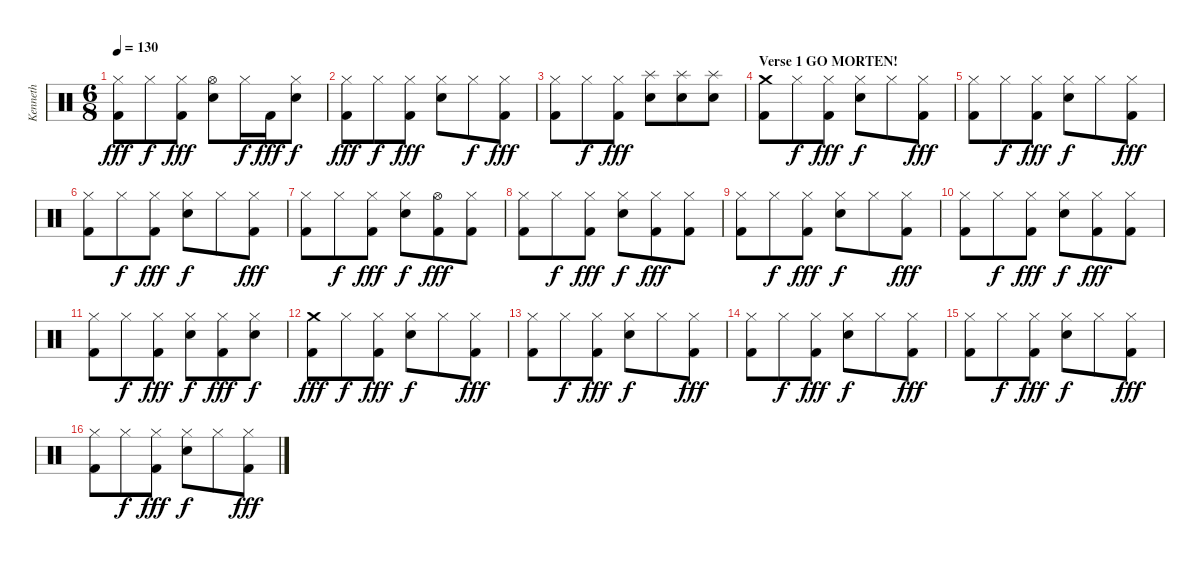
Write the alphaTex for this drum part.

\track ("Kenneth" "Kenneth") {instrument percussion}
\staff {score}
\articulation defaults
\ts (6 8)
\tempo 130
\clef neutral
\ks c
("Hi-Hat (closed)" "Kick (hit) 2").8{dy fff} "Hi-Hat (closed)".8{dy f} ("Hi-Hat (closed)" "Kick (hit) 2").8{dy fff} ("Hi-Hat (open)" "Electric Snare (hit)").8 "Hi-Hat (closed)".16{dy f} "Kick (hit) 2".16{dy fff} ("Hi-Hat (closed)" "Electric Snare (hit)").8{dy f} |
("Hi-Hat (closed)" "Kick (hit) 2").8{dy fff} "Hi-Hat (closed)".8{dy f} ("Hi-Hat (closed)" "Kick (hit) 2").8{dy fff} ("Hi-Hat (closed)" "Electric Snare (hit)").8 "Hi-Hat (closed)".8{dy f} ("Hi-Hat (closed)" "Kick (hit) 2").8{dy fff} |
("Hi-Hat (closed)" "Kick (hit) 2").8 "Hi-Hat (closed)".8{dy f} ("Hi-Hat (closed)" "Kick (hit) 2").8{dy fff} ("Splash (hit)" "Electric Snare (hit)").8 ("Splash (hit)" "Electric Snare (hit)").8 ("Splash (hit)" "Electric Snare (hit)").8 |
\section ("" "Verse 1 GO MORTEN!")
("Crash medium (hit)" "Kick (hit) 2").8 "Hi-Hat (closed)".8{dy f} ("Hi-Hat (closed)" "Kick (hit) 2").8{dy fff} ("Hi-Hat (closed)" "Electric Snare (hit)").8{dy f} "Hi-Hat (closed)".8 ("Hi-Hat (closed)" "Kick (hit) 2").8{dy fff} |
("Hi-Hat (closed)" "Kick (hit) 2").8 "Hi-Hat (closed)".8{dy f} ("Hi-Hat (closed)" "Kick (hit) 2").8{dy fff} ("Hi-Hat (closed)" "Electric Snare (hit)").8{dy f} "Hi-Hat (closed)".8 ("Hi-Hat (closed)" "Kick (hit) 2").8{dy fff} |
("Hi-Hat (closed)" "Kick (hit) 2").8 "Hi-Hat (closed)".8{dy f} ("Hi-Hat (closed)" "Kick (hit) 2").8{dy fff} ("Hi-Hat (closed)" "Electric Snare (hit)").8{dy f} "Hi-Hat (closed)".8 ("Hi-Hat (closed)" "Kick (hit) 2").8{dy fff} |
("Hi-Hat (closed)" "Kick (hit) 2").8 "Hi-Hat (closed)".8{dy f} ("Hi-Hat (closed)" "Kick (hit) 2").8{dy fff} ("Hi-Hat (closed)" "Electric Snare (hit)").8{dy f} ("Hi-Hat (open)" "Kick (hit) 2").8{dy fff} ("Hi-Hat (closed)" "Kick (hit) 2").8 |
("Hi-Hat (closed)" "Kick (hit) 2").8 "Hi-Hat (closed)".8{dy f} ("Hi-Hat (closed)" "Kick (hit) 2").8{dy fff} ("Hi-Hat (closed)" "Electric Snare (hit)").8{dy f} ("Hi-Hat (closed)" "Kick (hit) 2").8{dy fff} ("Hi-Hat (closed)" "Kick (hit) 2").8 |
("Hi-Hat (closed)" "Kick (hit) 2").8 "Hi-Hat (closed)".8{dy f} ("Hi-Hat (closed)" "Kick (hit) 2").8{dy fff} ("Hi-Hat (closed)" "Electric Snare (hit)").8{dy f} "Hi-Hat (closed)".8 ("Hi-Hat (closed)" "Kick (hit) 2").8{dy fff} |
("Hi-Hat (closed)" "Kick (hit) 2").8 "Hi-Hat (closed)".8{dy f} ("Hi-Hat (closed)" "Kick (hit) 2").8{dy fff} ("Hi-Hat (closed)" "Electric Snare (hit)").8{dy f} ("Hi-Hat (closed)" "Kick (hit) 2").8{dy fff} ("Hi-Hat (closed)" "Kick (hit) 2").8 |
("Hi-Hat (closed)" "Kick (hit) 2").8 "Hi-Hat (closed)".8{dy f} ("Hi-Hat (closed)" "Kick (hit) 2").8{dy fff} ("Hi-Hat (closed)" "Electric Snare (hit)").8{dy f} ("Hi-Hat (closed)" "Kick (hit) 2").8{dy fff} ("Hi-Hat (closed)" "Electric Snare (hit)").8{dy f} |
("Crash medium (hit)" "Kick (hit) 2").8{dy fff} "Hi-Hat (closed)".8{dy f} ("Hi-Hat (closed)" "Kick (hit) 2").8{dy fff} ("Hi-Hat (closed)" "Electric Snare (hit)").8{dy f} "Hi-Hat (closed)".8 ("Hi-Hat (closed)" "Kick (hit) 2").8{dy fff} |
("Hi-Hat (closed)" "Kick (hit) 2").8 "Hi-Hat (closed)".8{dy f} ("Hi-Hat (closed)" "Kick (hit) 2").8{dy fff} ("Hi-Hat (closed)" "Electric Snare (hit)").8{dy f} "Hi-Hat (closed)".8 ("Hi-Hat (closed)" "Kick (hit) 2").8{dy fff} |
("Hi-Hat (closed)" "Kick (hit) 2").8 "Hi-Hat (closed)".8{dy f} ("Hi-Hat (closed)" "Kick (hit) 2").8{dy fff} ("Hi-Hat (closed)" "Electric Snare (hit)").8{dy f} "Hi-Hat (closed)".8 ("Hi-Hat (closed)" "Kick (hit) 2").8{dy fff} |
("Hi-Hat (closed)" "Kick (hit) 2").8 "Hi-Hat (closed)".8{dy f} ("Hi-Hat (closed)" "Kick (hit) 2").8{dy fff} ("Hi-Hat (closed)" "Electric Snare (hit)").8{dy f} "Hi-Hat (closed)".8 ("Hi-Hat (closed)" "Kick (hit) 2").8{dy fff} |
("Hi-Hat (closed)" "Kick (hit) 2").8 "Hi-Hat (closed)".8{dy f} ("Hi-Hat (closed)" "Kick (hit) 2").8{dy fff} ("Hi-Hat (closed)" "Electric Snare (hit)").8{dy f} "Hi-Hat (closed)".8 ("Hi-Hat (closed)" "Kick (hit) 2").8{dy fff}
